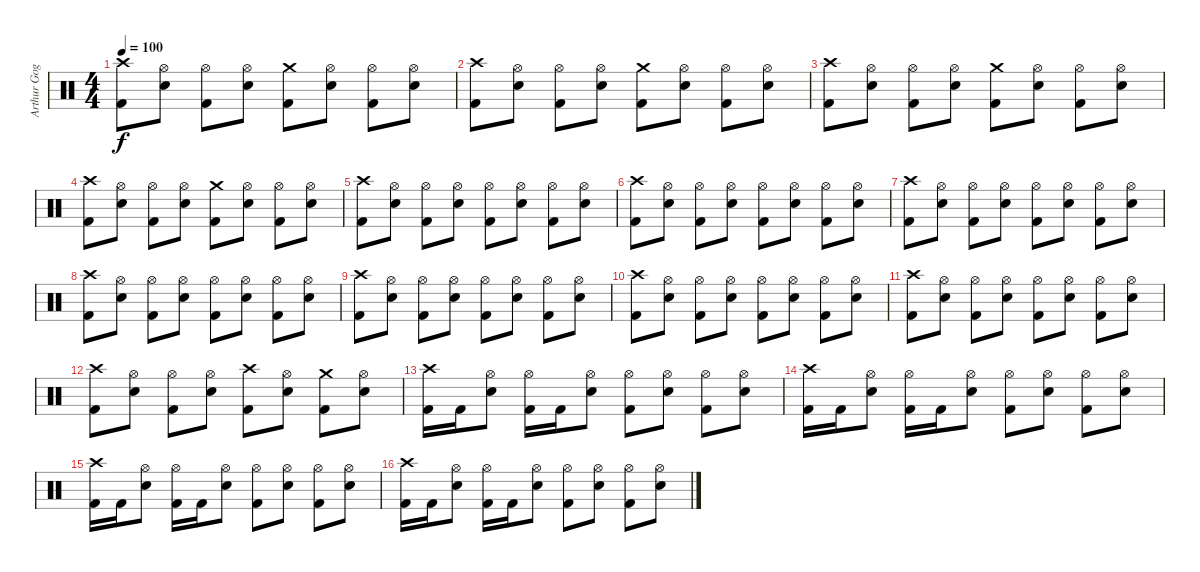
\track ("Arthur Goggy" "Arthur Gog") {instrument percussion}
\staff {score}
\articulation defaults
\ts (4 4)
\tempo 100
\clef neutral
\ks c
("Crash high (hit)" "Kick (hit) 2").8{dy f} ("Hi-Hat (open)" "Electric Snare (hit)").8 ("Hi-Hat (open)" "Kick (hit) 2").8 ("Hi-Hat (open)" "Electric Snare (hit)").8 ("Crash medium (hit)" "Kick (hit) 2").8 ("Hi-Hat (open)" "Electric Snare (hit)").8 ("Hi-Hat (open)" "Kick (hit) 2").8 ("Hi-Hat (open)" "Electric Snare (hit)").8 |
("Crash high (hit)" "Kick (hit) 2").8 ("Hi-Hat (open)" "Electric Snare (hit)").8 ("Hi-Hat (open)" "Kick (hit) 2").8 ("Hi-Hat (open)" "Electric Snare (hit)").8 ("Crash medium (hit)" "Kick (hit) 2").8 ("Hi-Hat (open)" "Electric Snare (hit)").8 ("Hi-Hat (open)" "Kick (hit) 2").8 ("Hi-Hat (open)" "Electric Snare (hit)").8 |
("Crash high (hit)" "Kick (hit) 2").8 ("Hi-Hat (open)" "Electric Snare (hit)").8 ("Hi-Hat (open)" "Kick (hit) 2").8 ("Hi-Hat (open)" "Electric Snare (hit)").8 ("Crash medium (hit)" "Kick (hit) 2").8 ("Hi-Hat (open)" "Electric Snare (hit)").8 ("Hi-Hat (open)" "Kick (hit) 2").8 ("Hi-Hat (open)" "Electric Snare (hit)").8 |
("Crash high (hit)" "Kick (hit) 2").8 ("Hi-Hat (open)" "Electric Snare (hit)").8 ("Hi-Hat (open)" "Kick (hit) 2").8 ("Hi-Hat (open)" "Electric Snare (hit)").8 ("Crash medium (hit)" "Kick (hit) 2").8 ("Hi-Hat (open)" "Electric Snare (hit)").8 ("Hi-Hat (open)" "Kick (hit) 2").8 ("Hi-Hat (open)" "Electric Snare (hit)").8 |
("Crash high (hit)" "Kick (hit) 2").8 ("Hi-Hat (open)" "Electric Snare (hit)").8 ("Hi-Hat (open)" "Kick (hit) 2").8 ("Hi-Hat (open)" "Electric Snare (hit)").8 ("Hi-Hat (open)" "Kick (hit) 2").8 ("Hi-Hat (open)" "Electric Snare (hit)").8 ("Hi-Hat (open)" "Kick (hit) 2").8 ("Hi-Hat (open)" "Electric Snare (hit)").8 |
("Crash high (hit)" "Kick (hit) 2").8 ("Hi-Hat (open)" "Electric Snare (hit)").8 ("Hi-Hat (open)" "Kick (hit) 2").8 ("Hi-Hat (open)" "Electric Snare (hit)").8 ("Hi-Hat (open)" "Kick (hit) 2").8 ("Hi-Hat (open)" "Electric Snare (hit)").8 ("Hi-Hat (open)" "Kick (hit) 2").8 ("Hi-Hat (open)" "Electric Snare (hit)").8 |
("Crash high (hit)" "Kick (hit) 2").8 ("Hi-Hat (open)" "Electric Snare (hit)").8 ("Hi-Hat (open)" "Kick (hit) 2").8 ("Hi-Hat (open)" "Electric Snare (hit)").8 ("Hi-Hat (open)" "Kick (hit) 2").8 ("Hi-Hat (open)" "Electric Snare (hit)").8 ("Hi-Hat (open)" "Kick (hit) 2").8 ("Hi-Hat (open)" "Electric Snare (hit)").8 |
("Crash high (hit)" "Kick (hit) 2").8 ("Hi-Hat (open)" "Electric Snare (hit)").8 ("Hi-Hat (open)" "Kick (hit) 2").8 ("Hi-Hat (open)" "Electric Snare (hit)").8 ("Hi-Hat (open)" "Kick (hit) 2").8 ("Hi-Hat (open)" "Electric Snare (hit)").8 ("Hi-Hat (open)" "Kick (hit) 2").8 ("Hi-Hat (open)" "Electric Snare (hit)").8 |
("Crash high (hit)" "Kick (hit) 2").8 ("Hi-Hat (open)" "Electric Snare (hit)").8 ("Hi-Hat (open)" "Kick (hit) 2").8 ("Hi-Hat (open)" "Electric Snare (hit)").8 ("Hi-Hat (open)" "Kick (hit) 2").8 ("Hi-Hat (open)" "Electric Snare (hit)").8 ("Hi-Hat (open)" "Kick (hit) 2").8 ("Hi-Hat (open)" "Electric Snare (hit)").8 |
("Crash high (hit)" "Kick (hit) 2").8 ("Hi-Hat (open)" "Electric Snare (hit)").8 ("Hi-Hat (open)" "Kick (hit) 2").8 ("Hi-Hat (open)" "Electric Snare (hit)").8 ("Hi-Hat (open)" "Kick (hit) 2").8 ("Hi-Hat (open)" "Electric Snare (hit)").8 ("Hi-Hat (open)" "Kick (hit) 2").8 ("Hi-Hat (open)" "Electric Snare (hit)").8 |
("Crash high (hit)" "Kick (hit) 2").8 ("Hi-Hat (open)" "Electric Snare (hit)").8 ("Hi-Hat (open)" "Kick (hit) 2").8 ("Hi-Hat (open)" "Electric Snare (hit)").8 ("Hi-Hat (open)" "Kick (hit) 2").8 ("Hi-Hat (open)" "Electric Snare (hit)").8 ("Hi-Hat (open)" "Kick (hit) 2").8 ("Hi-Hat (open)" "Electric Snare (hit)").8 |
("Crash high (hit)" "Kick (hit) 2").8 ("Hi-Hat (open)" "Electric Snare (hit)").8 ("Hi-Hat (open)" "Kick (hit) 2").8 ("Hi-Hat (open)" "Electric Snare (hit)").8 ("Crash high (hit)" "Kick (hit) 2").8 ("Hi-Hat (open)" "Electric Snare (hit)").8 ("Crash medium (hit)" "Kick (hit) 2").8 ("Hi-Hat (open)" "Electric Snare (hit)").8 |
("Crash high (hit)" "Kick (hit) 2").16 "Kick (hit) 2".16 ("Hi-Hat (open)" "Electric Snare (hit)").8 ("Hi-Hat (open)" "Kick (hit) 2").16 "Kick (hit) 2".16 ("Hi-Hat (open)" "Electric Snare (hit)").8 ("Hi-Hat (open)" "Kick (hit) 2").8 ("Hi-Hat (open)" "Electric Snare (hit)").8 ("Hi-Hat (open)" "Kick (hit) 2").8 ("Hi-Hat (open)" "Electric Snare (hit)").8 |
("Crash high (hit)" "Kick (hit) 2").16 "Kick (hit) 2".16 ("Hi-Hat (open)" "Electric Snare (hit)").8 ("Hi-Hat (open)" "Kick (hit) 2").16 "Kick (hit) 2".16 ("Hi-Hat (open)" "Electric Snare (hit)").8 ("Hi-Hat (open)" "Kick (hit) 2").8 ("Hi-Hat (open)" "Electric Snare (hit)").8 ("Hi-Hat (open)" "Kick (hit) 2").8 ("Hi-Hat (open)" "Electric Snare (hit)").8 |
("Crash high (hit)" "Kick (hit) 2").16 "Kick (hit) 2".16 ("Hi-Hat (open)" "Electric Snare (hit)").8 ("Hi-Hat (open)" "Kick (hit) 2").16 "Kick (hit) 2".16 ("Hi-Hat (open)" "Electric Snare (hit)").8 ("Hi-Hat (open)" "Kick (hit) 2").8 ("Hi-Hat (open)" "Electric Snare (hit)").8 ("Hi-Hat (open)" "Kick (hit) 2").8 ("Hi-Hat (open)" "Electric Snare (hit)").8 |
("Crash high (hit)" "Kick (hit) 2").16 "Kick (hit) 2".16 ("Hi-Hat (open)" "Electric Snare (hit)").8 ("Hi-Hat (open)" "Kick (hit) 2").16 "Kick (hit) 2".16 ("Hi-Hat (open)" "Electric Snare (hit)").8 ("Hi-Hat (open)" "Kick (hit) 2").8 ("Hi-Hat (open)" "Electric Snare (hit)").8 ("Hi-Hat (open)" "Kick (hit) 2").8 ("Hi-Hat (open)" "Electric Snare (hit)").8
